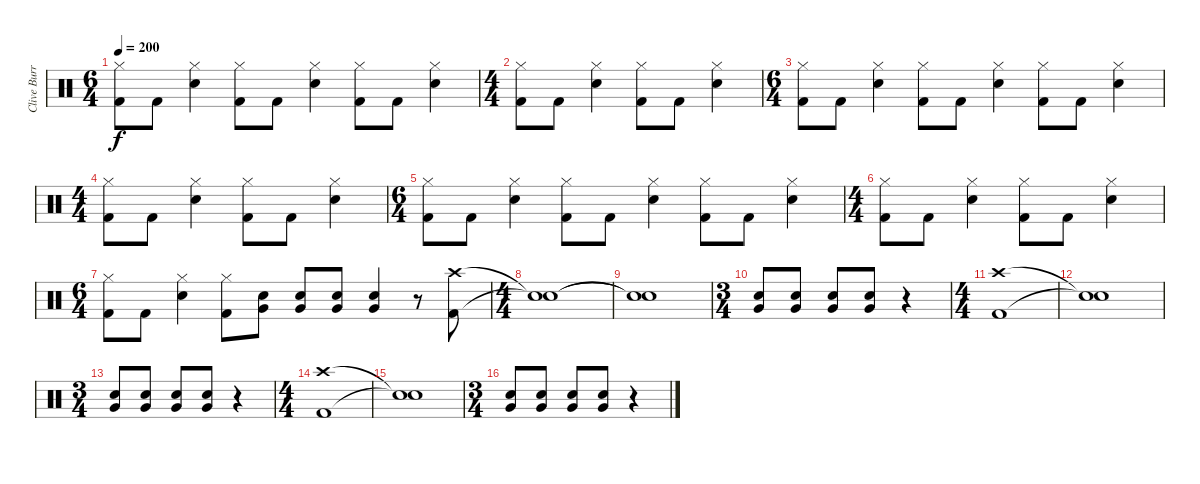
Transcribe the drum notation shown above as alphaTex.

\track ("Clive Burr" "Clive Burr") {instrument percussion}
\staff {score}
\articulation defaults
\ts (6 4)
\tempo 200
\clef neutral
\ks c
("Hi-Hat (closed)" "Kick (hit) 2").8{dy f} "Kick (hit) 2".8 ("Hi-Hat (closed)" "Snare (hit) 2").4 ("Hi-Hat (closed)" "Kick (hit) 2").8 "Kick (hit) 2".8 ("Hi-Hat (closed)" "Snare (hit) 2").4 ("Hi-Hat (closed)" "Kick (hit) 2").8 "Kick (hit) 2".8 ("Hi-Hat (closed)" "Snare (hit) 2").4 |
\ts (4 4)
("Hi-Hat (closed)" "Kick (hit) 2").8 "Kick (hit) 2".8 ("Hi-Hat (closed)" "Snare (hit) 2").4 ("Hi-Hat (closed)" "Kick (hit) 2").8 "Kick (hit) 2".8 ("Hi-Hat (closed)" "Snare (hit) 2").4 |
\ts (6 4)
("Hi-Hat (closed)" "Kick (hit) 2").8 "Kick (hit) 2".8 ("Hi-Hat (closed)" "Snare (hit) 2").4 ("Hi-Hat (closed)" "Kick (hit) 2").8 "Kick (hit) 2".8 ("Hi-Hat (closed)" "Snare (hit) 2").4 ("Hi-Hat (closed)" "Kick (hit) 2").8 "Kick (hit) 2".8 ("Hi-Hat (closed)" "Snare (hit) 2").4 |
\ts (4 4)
("Hi-Hat (closed)" "Kick (hit) 2").8 "Kick (hit) 2".8 ("Hi-Hat (closed)" "Snare (hit) 2").4 ("Hi-Hat (closed)" "Kick (hit) 2").8 "Kick (hit) 2".8 ("Hi-Hat (closed)" "Snare (hit) 2").4 |
\ts (6 4)
("Hi-Hat (closed)" "Kick (hit) 2").8 "Kick (hit) 2".8 ("Hi-Hat (closed)" "Snare (hit) 2").4 ("Hi-Hat (closed)" "Kick (hit) 2").8 "Kick (hit) 2".8 ("Hi-Hat (closed)" "Snare (hit) 2").4 ("Hi-Hat (closed)" "Kick (hit) 2").8 "Kick (hit) 2".8 ("Hi-Hat (closed)" "Snare (hit) 2").4 |
\ts (4 4)
("Hi-Hat (closed)" "Kick (hit) 2").8 "Kick (hit) 2".8 ("Hi-Hat (closed)" "Snare (hit) 2").4 ("Hi-Hat (closed)" "Kick (hit) 2").8 "Kick (hit) 2".8 ("Hi-Hat (closed)" "Snare (hit) 2").4 |
\ts (6 4)
("Hi-Hat (closed)" "Kick (hit) 2").8 "Kick (hit) 2".8 ("Hi-Hat (closed)" "Snare (hit) 2").4 ("Hi-Hat (closed)" "Kick (hit) 2").8 ("Very Low Tom (hit)" "Snare (hit) 2").8 ("Very Low Tom (hit)" "Snare (hit) 2").8 ("Very Low Tom (hit)" "Snare (hit) 2").8 ("Very Low Tom (hit)" "Snare (hit) 2").4 r.8 ("Crash high (hit)" "Kick (hit) 2").8 |
\ts (4 4)
("Snare (hit)"{t} "Snare (hit)"{t}).1 |
("Snare (hit)"{t} "Snare (hit)"{t}).1 |
\ts (3 4)
("Very Low Tom (hit)" "Snare (hit) 2").8 ("Very Low Tom (hit)" "Snare (hit) 2").8 ("Very Low Tom (hit)" "Snare (hit) 2").8 ("Very Low Tom (hit)" "Snare (hit) 2").8 r.4 |
\ts (4 4)
("Crash high (hit)" "Kick (hit) 2").1 |
("Snare (hit)"{t} "Snare (hit)"{t}).1 |
\ts (3 4)
("Very Low Tom (hit)" "Snare (hit) 2").8 ("Very Low Tom (hit)" "Snare (hit) 2").8 ("Very Low Tom (hit)" "Snare (hit) 2").8 ("Very Low Tom (hit)" "Snare (hit) 2").8 r.4 |
\ts (4 4)
("Crash high (hit)" "Kick (hit) 2").1 |
("Snare (hit)"{t} "Snare (hit)"{t}).1 |
\ts (3 4)
("Very Low Tom (hit)" "Snare (hit) 2").8 ("Very Low Tom (hit)" "Snare (hit) 2").8 ("Very Low Tom (hit)" "Snare (hit) 2").8 ("Very Low Tom (hit)" "Snare (hit) 2").8 r.4
